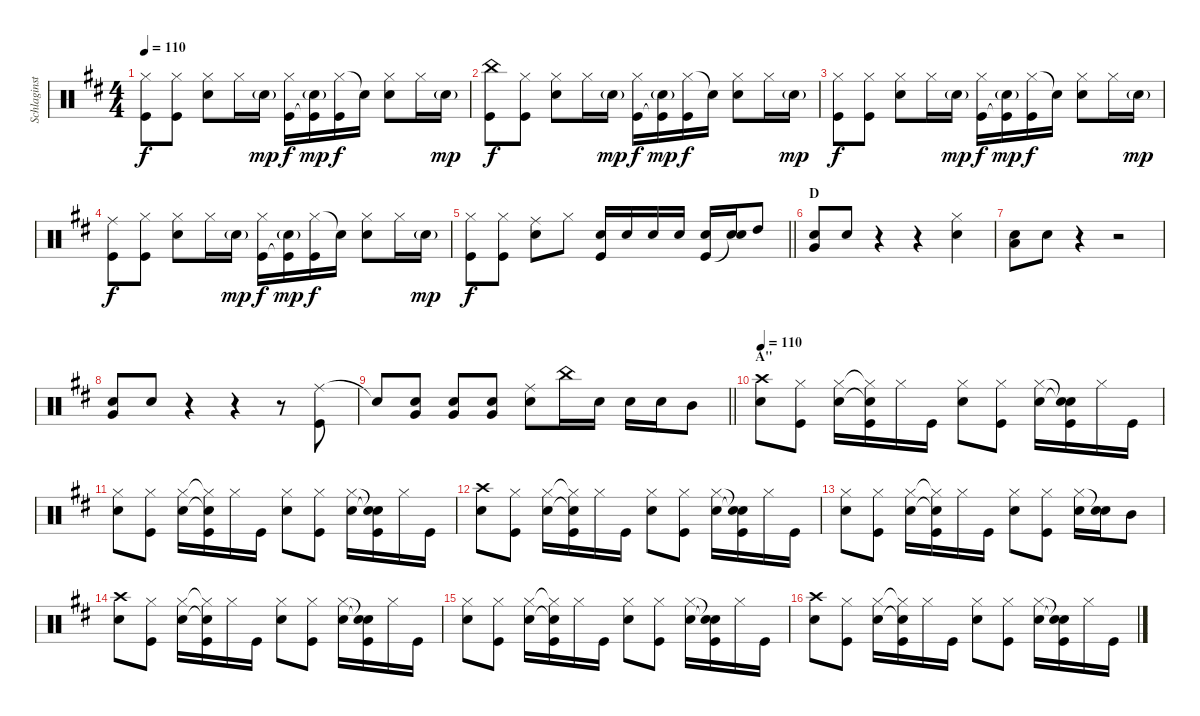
\track ("Schlaginstrumente - Auswahl" "Schlaginst") {instrument percussion}
\staff {score}
\articulation defaults
\ts (4 4)
\tempo 110
\clef neutral
\ks d
("Hi-Hat (closed)" "Kick (hit)").8{dy f} ("Hi-Hat (closed)" "Kick (hit)").8 ("Hi-Hat (closed)" "Snare (hit) 2").8 "Hi-Hat (closed)".16 "Snare (hit) 2"{g}.16{dy mp} ("Hi-Hat (closed)" "Kick (hit)").16{dy f} ("Snare (hit) 2"{g} "Kick (hit)"{t}).16{dy mp} ("Hi-Hat (closed)" "Kick (hit)").16{dy f} "Snare (hit)"{t}.16 ("Hi-Hat (closed)" "Snare (hit) 2").8 "Hi-Hat (closed)".16 "Snare (hit) 2"{g}.16{dy mp} |
("China (hit)" "Kick (hit)").8{dy f} ("Hi-Hat (closed)" "Kick (hit)").8 ("Hi-Hat (closed)" "Snare (hit) 2").8 "Hi-Hat (closed)".16 "Snare (hit) 2"{g}.16{dy mp} ("Hi-Hat (closed)" "Kick (hit)").16{dy f} ("Snare (hit) 2"{g} "Kick (hit)"{t}).16{dy mp} ("Hi-Hat (closed)" "Kick (hit)").16{dy f} "Snare (hit)"{t}.16 ("Hi-Hat (closed)" "Snare (hit) 2").8 "Hi-Hat (closed)".16 "Snare (hit) 2"{g}.16{dy mp} |
("Hi-Hat (closed)" "Kick (hit)").8{dy f} ("Hi-Hat (closed)" "Kick (hit)").8 ("Hi-Hat (closed)" "Snare (hit) 2").8 "Hi-Hat (closed)".16 "Snare (hit) 2"{g}.16{dy mp} ("Hi-Hat (closed)" "Kick (hit)").16{dy f} ("Snare (hit) 2"{g} "Kick (hit)"{t}).16{dy mp} ("Hi-Hat (closed)" "Kick (hit)").16{dy f} "Snare (hit)"{t}.16 ("Hi-Hat (closed)" "Snare (hit) 2").8 "Hi-Hat (closed)".16 "Snare (hit) 2"{g}.16{dy mp} |
("Ride (middle)" "Kick (hit)").8{dy f} ("Hi-Hat (closed)" "Kick (hit)").8 ("Hi-Hat (closed)" "Snare (hit) 2").8 "Hi-Hat (closed)".16 "Snare (hit) 2"{g}.16{dy mp} ("Hi-Hat (closed)" "Kick (hit)").16{dy f} ("Snare (hit) 2"{g} "Kick (hit)"{t}).16{dy mp} ("Hi-Hat (closed)" "Kick (hit)").16{dy f} "Snare (hit)"{t}.16 ("Hi-Hat (closed)" "Snare (hit) 2").8 "Hi-Hat (closed)".16 "Snare (hit) 2"{g}.16{dy mp} |
\barLineRight lightlight
("Hi-Hat (closed)" "Kick (hit)").8{dy f} ("Hi-Hat (closed)" "Kick (hit)").8 ("Ride (middle)" "Snare (hit) 2").8 "Hi-Hat (closed)".8 ("Snare (hit) 2" "Kick (hit)").16 "Snare (hit) 2".16 "Snare (hit) 2".16 "Snare (hit) 2".16 ("Snare (hit) 2" "Kick (hit)").16 ("Snare (hit) 2" "Snare (hit)"{t}).16 "High Tom (hit)".8 |
\section ("" "D")
("Very Low Tom (hit)" "Snare (hit) 2").8 "Snare (hit) 2".8 r.4 r.4 ("Hi-Hat (closed)" "Snare (hit) 2").4 |
("Low Tom (hit)" "Snare (hit) 2").8 "Snare (hit) 2".8 r.4 r.2 |
("Very Low Tom (hit)" "Snare (hit) 2").8 "Snare (hit) 2".8 r.4 r.4 r.8 ("Ride (middle)" "Kick (hit)").8 |
\barLineRight lightlight "Snare (hit)"{t}.8
("Very Low Tom (hit)" "Snare (hit) 2").8 ("Very Low Tom (hit)" "Snare (hit) 2").8 ("Very Low Tom (hit)" "Snare (hit) 2").8 ("Ride (middle)" "Snare (hit) 2").8 "China (hit)".16 "Snare (hit) 2".16 "Snare (hit) 2".16 "Snare (hit) 2".16 "Mid Tom (hit)".8 |
\section ("" "A\"")
\tempo 110
("Crash high (hit)" "Snare (hit) 2").8 ("Hi-Hat (closed)" "Kick (hit)").8 ("Hi-Hat (closed)" "Snare (hit) 2").16 ("Hi-Hat (closed)"{t} "Snare (hit)"{t} "Kick (hit)").16 "Hi-Hat (closed)".16 "Kick (hit)".16 ("Hi-Hat (closed)" "Snare (hit) 2").8 ("Hi-Hat (closed)" "Kick (hit)").8 ("Hi-Hat (closed)" "Snare (hit) 2").16 ("Snare (hit)"{t} "Snare (hit)"{t} "Kick (hit)").16 "Hi-Hat (closed)".16 "Kick (hit)".16 |
("Hi-Hat (closed)" "Snare (hit) 2").8 ("Hi-Hat (closed)" "Kick (hit)").8 ("Hi-Hat (closed)" "Snare (hit) 2").16 ("Hi-Hat (closed)"{t} "Snare (hit)"{t} "Kick (hit)").16 "Hi-Hat (closed)".16 "Kick (hit)".16 ("Hi-Hat (closed)" "Snare (hit) 2").8 ("Hi-Hat (closed)" "Kick (hit)").8 ("Hi-Hat (closed)" "Snare (hit) 2").16 ("Snare (hit)"{t} "Snare (hit)"{t} "Kick (hit)").16 "Hi-Hat (closed)".16 "Kick (hit)".16 |
("Crash high (hit)" "Snare (hit) 2").8 ("Hi-Hat (closed)" "Kick (hit)").8 ("Hi-Hat (closed)" "Snare (hit) 2").16 ("Hi-Hat (closed)"{t} "Snare (hit)"{t} "Kick (hit)").16 "Hi-Hat (closed)".16 "Kick (hit)".16 ("Hi-Hat (closed)" "Snare (hit) 2").8 ("Hi-Hat (closed)" "Kick (hit)").8 ("Hi-Hat (closed)" "Snare (hit) 2").16 ("Snare (hit)"{t} "Snare (hit)"{t} "Kick (hit)").16 "Hi-Hat (closed)".16 "Kick (hit)".16 |
("Hi-Hat (closed)" "Snare (hit) 2").8 ("Hi-Hat (closed)" "Kick (hit)").8 ("Hi-Hat (closed)" "Snare (hit) 2").16 ("Hi-Hat (closed)"{t} "Snare (hit)"{t} "Kick (hit)").16 "Hi-Hat (closed)".16 "Kick (hit)".16 ("Hi-Hat (closed)" "Snare (hit) 2").8 ("Hi-Hat (closed)" "Kick (hit)").8 ("Hi-Hat (closed)" "Snare (hit) 2").16 ("Snare (hit)"{t} "Snare (hit) 2").16 "Mid Tom (hit)".8 |
("Crash high (hit)" "Snare (hit) 2").8 ("Hi-Hat (closed)" "Kick (hit)").8 ("Hi-Hat (closed)" "Snare (hit) 2").16 ("Hi-Hat (closed)"{t} "Snare (hit)"{t} "Kick (hit)").16 "Hi-Hat (closed)".16 "Kick (hit)".16 ("Hi-Hat (closed)" "Snare (hit) 2").8 ("Hi-Hat (closed)" "Kick (hit)").8 ("Hi-Hat (closed)" "Snare (hit) 2").16 ("Snare (hit)"{t} "Snare (hit)"{t} "Kick (hit)").16 "Hi-Hat (closed)".16 "Kick (hit)".16 |
("Hi-Hat (closed)" "Snare (hit) 2").8 ("Hi-Hat (closed)" "Kick (hit)").8 ("Hi-Hat (closed)" "Snare (hit) 2").16 ("Hi-Hat (closed)"{t} "Snare (hit)"{t} "Kick (hit)").16 "Hi-Hat (closed)".16 "Kick (hit)".16 ("Hi-Hat (closed)" "Snare (hit) 2").8 ("Hi-Hat (closed)" "Kick (hit)").8 ("Hi-Hat (closed)" "Snare (hit) 2").16 ("Snare (hit)"{t} "Snare (hit)"{t} "Kick (hit)").16 "Hi-Hat (closed)".16 "Kick (hit)".16 |
("Crash high (hit)" "Snare (hit) 2").8 ("Hi-Hat (closed)" "Kick (hit)").8 ("Hi-Hat (closed)" "Snare (hit) 2").16 ("Hi-Hat (closed)"{t} "Snare (hit)"{t} "Kick (hit)").16 "Hi-Hat (closed)".16 "Kick (hit)".16 ("Hi-Hat (closed)" "Snare (hit) 2").8 ("Hi-Hat (closed)" "Kick (hit)").8 ("Hi-Hat (closed)" "Snare (hit) 2").16 ("Snare (hit)"{t} "Snare (hit)"{t} "Kick (hit)").16 "Hi-Hat (closed)".16 "Kick (hit)".16
